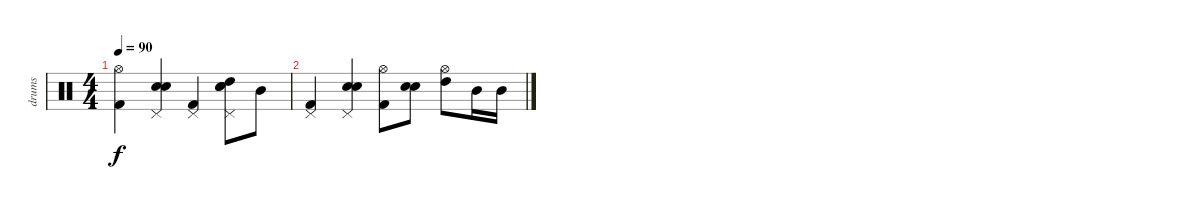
\track ("drums" "drums") {instrument percussion}
\staff {score}
\articulation defaults
\ts (4 4)
\tempo 90
\clef neutral
\ks c
("Hi-Hat (open)" "Kick (hit) 2").4{dy f} ("Snare (hit) 2" "Electric Snare (hit)" "Pedal Hi-Hat (hit)").4 ("Kick (hit) 2" "Pedal Hi-Hat (hit)").4 ("Snare (hit) 2" "Electric Snare (hit)" "High Tom (hit)" "Pedal Hi-Hat (hit)").8 "Mid Tom (hit)".8 |
("Kick (hit) 2" "Pedal Hi-Hat (hit)").4 ("Snare (hit) 2" "Electric Snare (hit)" "Pedal Hi-Hat (hit)").4 ("Hi-Hat (open)" "Kick (hit) 2").8 ("Snare (hit) 2" "Electric Snare (hit)").8 ("Hi-Hat (open)" "High Tom (hit)").8 "Mid Tom (hit)".16 "Mid Tom (hit)".16
